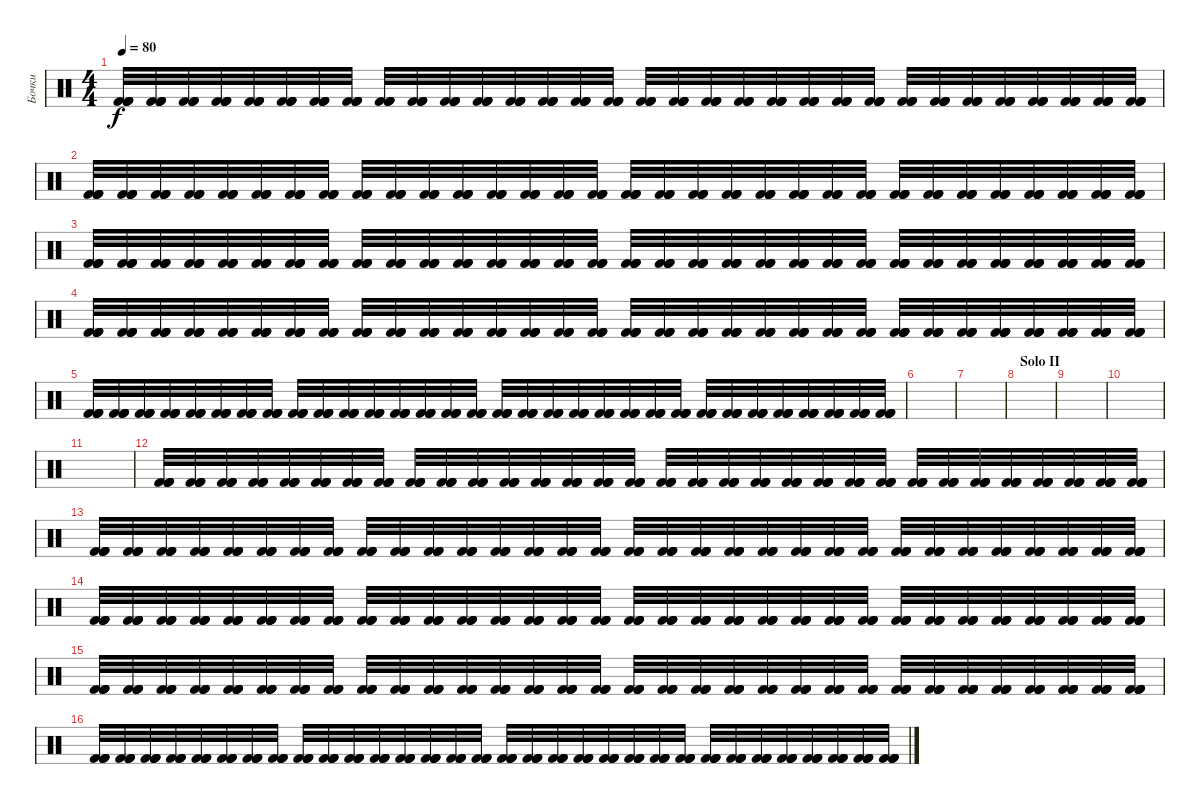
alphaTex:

\track ("Бочки" "Бочки") {instrument percussion}
\staff {score}
\articulation defaults
\ts (4 4)
\tempo 80
\clef neutral
\ks c
("Kick (hit) 2" "Kick (hit) 2" "Kick (hit) 2" "Kick (hit) 2").32{dy f} ("Kick (hit) 2" "Kick (hit) 2" "Kick (hit) 2" "Kick (hit) 2").32 ("Kick (hit) 2" "Kick (hit) 2" "Kick (hit) 2" "Kick (hit) 2").32 ("Kick (hit) 2" "Kick (hit) 2" "Kick (hit) 2" "Kick (hit) 2").32 ("Kick (hit) 2" "Kick (hit) 2" "Kick (hit) 2" "Kick (hit) 2").32 ("Kick (hit) 2" "Kick (hit) 2" "Kick (hit) 2" "Kick (hit) 2").32 ("Kick (hit) 2" "Kick (hit) 2" "Kick (hit) 2" "Kick (hit) 2").32 ("Kick (hit) 2" "Kick (hit) 2" "Kick (hit) 2" "Kick (hit) 2").32 ("Kick (hit) 2" "Kick (hit) 2" "Kick (hit) 2" "Kick (hit) 2").32 ("Kick (hit) 2" "Kick (hit) 2" "Kick (hit) 2" "Kick (hit) 2").32 ("Kick (hit) 2" "Kick (hit) 2" "Kick (hit) 2" "Kick (hit) 2").32 ("Kick (hit) 2" "Kick (hit) 2" "Kick (hit) 2" "Kick (hit) 2").32 ("Kick (hit) 2" "Kick (hit) 2" "Kick (hit) 2" "Kick (hit) 2").32 ("Kick (hit) 2" "Kick (hit) 2" "Kick (hit) 2" "Kick (hit) 2").32 ("Kick (hit) 2" "Kick (hit) 2" "Kick (hit) 2" "Kick (hit) 2").32 ("Kick (hit) 2" "Kick (hit) 2" "Kick (hit) 2" "Kick (hit) 2").32 ("Kick (hit) 2" "Kick (hit) 2" "Kick (hit) 2" "Kick (hit) 2").32 ("Kick (hit) 2" "Kick (hit) 2" "Kick (hit) 2" "Kick (hit) 2").32 ("Kick (hit) 2" "Kick (hit) 2" "Kick (hit) 2" "Kick (hit) 2").32 ("Kick (hit) 2" "Kick (hit) 2" "Kick (hit) 2" "Kick (hit) 2").32 ("Kick (hit) 2" "Kick (hit) 2" "Kick (hit) 2" "Kick (hit) 2").32 ("Kick (hit) 2" "Kick (hit) 2" "Kick (hit) 2" "Kick (hit) 2").32 ("Kick (hit) 2" "Kick (hit) 2" "Kick (hit) 2" "Kick (hit) 2").32 ("Kick (hit) 2" "Kick (hit) 2" "Kick (hit) 2" "Kick (hit) 2").32 ("Kick (hit) 2" "Kick (hit) 2" "Kick (hit) 2" "Kick (hit) 2").32 ("Kick (hit) 2" "Kick (hit) 2" "Kick (hit) 2" "Kick (hit) 2").32 ("Kick (hit) 2" "Kick (hit) 2" "Kick (hit) 2" "Kick (hit) 2").32 ("Kick (hit) 2" "Kick (hit) 2" "Kick (hit) 2" "Kick (hit) 2").32 ("Kick (hit) 2" "Kick (hit) 2" "Kick (hit) 2" "Kick (hit) 2").32 ("Kick (hit) 2" "Kick (hit) 2" "Kick (hit) 2" "Kick (hit) 2").32 ("Kick (hit) 2" "Kick (hit) 2" "Kick (hit) 2" "Kick (hit) 2").32 ("Kick (hit) 2" "Kick (hit) 2" "Kick (hit) 2" "Kick (hit) 2").32 |
("Kick (hit) 2" "Kick (hit) 2" "Kick (hit) 2" "Kick (hit) 2").32 ("Kick (hit) 2" "Kick (hit) 2" "Kick (hit) 2" "Kick (hit) 2").32 ("Kick (hit) 2" "Kick (hit) 2" "Kick (hit) 2" "Kick (hit) 2").32 ("Kick (hit) 2" "Kick (hit) 2" "Kick (hit) 2" "Kick (hit) 2").32 ("Kick (hit) 2" "Kick (hit) 2" "Kick (hit) 2" "Kick (hit) 2").32 ("Kick (hit) 2" "Kick (hit) 2" "Kick (hit) 2" "Kick (hit) 2").32 ("Kick (hit) 2" "Kick (hit) 2" "Kick (hit) 2" "Kick (hit) 2").32 ("Kick (hit) 2" "Kick (hit) 2" "Kick (hit) 2" "Kick (hit) 2").32 ("Kick (hit) 2" "Kick (hit) 2" "Kick (hit) 2" "Kick (hit) 2").32 ("Kick (hit) 2" "Kick (hit) 2" "Kick (hit) 2" "Kick (hit) 2").32 ("Kick (hit) 2" "Kick (hit) 2" "Kick (hit) 2" "Kick (hit) 2").32 ("Kick (hit) 2" "Kick (hit) 2" "Kick (hit) 2" "Kick (hit) 2").32 ("Kick (hit) 2" "Kick (hit) 2" "Kick (hit) 2" "Kick (hit) 2").32 ("Kick (hit) 2" "Kick (hit) 2" "Kick (hit) 2" "Kick (hit) 2").32 ("Kick (hit) 2" "Kick (hit) 2" "Kick (hit) 2" "Kick (hit) 2").32 ("Kick (hit) 2" "Kick (hit) 2" "Kick (hit) 2" "Kick (hit) 2").32 ("Kick (hit) 2" "Kick (hit) 2" "Kick (hit) 2" "Kick (hit) 2").32 ("Kick (hit) 2" "Kick (hit) 2" "Kick (hit) 2" "Kick (hit) 2").32 ("Kick (hit) 2" "Kick (hit) 2" "Kick (hit) 2" "Kick (hit) 2").32 ("Kick (hit) 2" "Kick (hit) 2" "Kick (hit) 2" "Kick (hit) 2").32 ("Kick (hit) 2" "Kick (hit) 2" "Kick (hit) 2" "Kick (hit) 2").32 ("Kick (hit) 2" "Kick (hit) 2" "Kick (hit) 2" "Kick (hit) 2").32 ("Kick (hit) 2" "Kick (hit) 2" "Kick (hit) 2" "Kick (hit) 2").32 ("Kick (hit) 2" "Kick (hit) 2" "Kick (hit) 2" "Kick (hit) 2").32 ("Kick (hit) 2" "Kick (hit) 2" "Kick (hit) 2" "Kick (hit) 2").32 ("Kick (hit) 2" "Kick (hit) 2" "Kick (hit) 2" "Kick (hit) 2").32 ("Kick (hit) 2" "Kick (hit) 2" "Kick (hit) 2" "Kick (hit) 2").32 ("Kick (hit) 2" "Kick (hit) 2" "Kick (hit) 2" "Kick (hit) 2").32 ("Kick (hit) 2" "Kick (hit) 2" "Kick (hit) 2" "Kick (hit) 2").32 ("Kick (hit) 2" "Kick (hit) 2" "Kick (hit) 2" "Kick (hit) 2").32 ("Kick (hit) 2" "Kick (hit) 2" "Kick (hit) 2" "Kick (hit) 2").32 ("Kick (hit) 2" "Kick (hit) 2" "Kick (hit) 2" "Kick (hit) 2").32 |
("Kick (hit) 2" "Kick (hit) 2" "Kick (hit) 2" "Kick (hit) 2").32 ("Kick (hit) 2" "Kick (hit) 2" "Kick (hit) 2" "Kick (hit) 2").32 ("Kick (hit) 2" "Kick (hit) 2" "Kick (hit) 2" "Kick (hit) 2").32 ("Kick (hit) 2" "Kick (hit) 2" "Kick (hit) 2" "Kick (hit) 2").32 ("Kick (hit) 2" "Kick (hit) 2" "Kick (hit) 2" "Kick (hit) 2").32 ("Kick (hit) 2" "Kick (hit) 2" "Kick (hit) 2" "Kick (hit) 2").32 ("Kick (hit) 2" "Kick (hit) 2" "Kick (hit) 2" "Kick (hit) 2").32 ("Kick (hit) 2" "Kick (hit) 2" "Kick (hit) 2" "Kick (hit) 2").32 ("Kick (hit) 2" "Kick (hit) 2" "Kick (hit) 2" "Kick (hit) 2").32 ("Kick (hit) 2" "Kick (hit) 2" "Kick (hit) 2" "Kick (hit) 2").32 ("Kick (hit) 2" "Kick (hit) 2" "Kick (hit) 2" "Kick (hit) 2").32 ("Kick (hit) 2" "Kick (hit) 2" "Kick (hit) 2" "Kick (hit) 2").32 ("Kick (hit) 2" "Kick (hit) 2" "Kick (hit) 2" "Kick (hit) 2").32 ("Kick (hit) 2" "Kick (hit) 2" "Kick (hit) 2" "Kick (hit) 2").32 ("Kick (hit) 2" "Kick (hit) 2" "Kick (hit) 2" "Kick (hit) 2").32 ("Kick (hit) 2" "Kick (hit) 2" "Kick (hit) 2" "Kick (hit) 2").32 ("Kick (hit) 2" "Kick (hit) 2" "Kick (hit) 2" "Kick (hit) 2").32 ("Kick (hit) 2" "Kick (hit) 2" "Kick (hit) 2" "Kick (hit) 2").32 ("Kick (hit) 2" "Kick (hit) 2" "Kick (hit) 2" "Kick (hit) 2").32 ("Kick (hit) 2" "Kick (hit) 2" "Kick (hit) 2" "Kick (hit) 2").32 ("Kick (hit) 2" "Kick (hit) 2" "Kick (hit) 2" "Kick (hit) 2").32 ("Kick (hit) 2" "Kick (hit) 2" "Kick (hit) 2" "Kick (hit) 2").32 ("Kick (hit) 2" "Kick (hit) 2" "Kick (hit) 2" "Kick (hit) 2").32 ("Kick (hit) 2" "Kick (hit) 2" "Kick (hit) 2" "Kick (hit) 2").32 ("Kick (hit) 2" "Kick (hit) 2" "Kick (hit) 2" "Kick (hit) 2").32 ("Kick (hit) 2" "Kick (hit) 2" "Kick (hit) 2" "Kick (hit) 2").32 ("Kick (hit) 2" "Kick (hit) 2" "Kick (hit) 2" "Kick (hit) 2").32 ("Kick (hit) 2" "Kick (hit) 2" "Kick (hit) 2" "Kick (hit) 2").32 ("Kick (hit) 2" "Kick (hit) 2" "Kick (hit) 2" "Kick (hit) 2").32 ("Kick (hit) 2" "Kick (hit) 2" "Kick (hit) 2" "Kick (hit) 2").32 ("Kick (hit) 2" "Kick (hit) 2" "Kick (hit) 2" "Kick (hit) 2").32 ("Kick (hit) 2" "Kick (hit) 2" "Kick (hit) 2" "Kick (hit) 2").32 |
("Kick (hit) 2" "Kick (hit) 2" "Kick (hit) 2" "Kick (hit) 2").32 ("Kick (hit) 2" "Kick (hit) 2" "Kick (hit) 2" "Kick (hit) 2").32 ("Kick (hit) 2" "Kick (hit) 2" "Kick (hit) 2" "Kick (hit) 2").32 ("Kick (hit) 2" "Kick (hit) 2" "Kick (hit) 2" "Kick (hit) 2").32 ("Kick (hit) 2" "Kick (hit) 2" "Kick (hit) 2" "Kick (hit) 2").32 ("Kick (hit) 2" "Kick (hit) 2" "Kick (hit) 2" "Kick (hit) 2").32 ("Kick (hit) 2" "Kick (hit) 2" "Kick (hit) 2" "Kick (hit) 2").32 ("Kick (hit) 2" "Kick (hit) 2" "Kick (hit) 2" "Kick (hit) 2").32 ("Kick (hit) 2" "Kick (hit) 2" "Kick (hit) 2" "Kick (hit) 2").32 ("Kick (hit) 2" "Kick (hit) 2" "Kick (hit) 2" "Kick (hit) 2").32 ("Kick (hit) 2" "Kick (hit) 2" "Kick (hit) 2" "Kick (hit) 2").32 ("Kick (hit) 2" "Kick (hit) 2" "Kick (hit) 2" "Kick (hit) 2").32 ("Kick (hit) 2" "Kick (hit) 2" "Kick (hit) 2" "Kick (hit) 2").32 ("Kick (hit) 2" "Kick (hit) 2" "Kick (hit) 2" "Kick (hit) 2").32 ("Kick (hit) 2" "Kick (hit) 2" "Kick (hit) 2" "Kick (hit) 2").32 ("Kick (hit) 2" "Kick (hit) 2" "Kick (hit) 2" "Kick (hit) 2").32 ("Kick (hit) 2" "Kick (hit) 2" "Kick (hit) 2" "Kick (hit) 2").32 ("Kick (hit) 2" "Kick (hit) 2" "Kick (hit) 2" "Kick (hit) 2").32 ("Kick (hit) 2" "Kick (hit) 2" "Kick (hit) 2" "Kick (hit) 2").32 ("Kick (hit) 2" "Kick (hit) 2" "Kick (hit) 2" "Kick (hit) 2").32 ("Kick (hit) 2" "Kick (hit) 2" "Kick (hit) 2" "Kick (hit) 2").32 ("Kick (hit) 2" "Kick (hit) 2" "Kick (hit) 2" "Kick (hit) 2").32 ("Kick (hit) 2" "Kick (hit) 2" "Kick (hit) 2" "Kick (hit) 2").32 ("Kick (hit) 2" "Kick (hit) 2" "Kick (hit) 2" "Kick (hit) 2").32 ("Kick (hit) 2" "Kick (hit) 2" "Kick (hit) 2" "Kick (hit) 2").32 ("Kick (hit) 2" "Kick (hit) 2" "Kick (hit) 2" "Kick (hit) 2").32 ("Kick (hit) 2" "Kick (hit) 2" "Kick (hit) 2" "Kick (hit) 2").32 ("Kick (hit) 2" "Kick (hit) 2" "Kick (hit) 2" "Kick (hit) 2").32 ("Kick (hit) 2" "Kick (hit) 2" "Kick (hit) 2" "Kick (hit) 2").32 ("Kick (hit) 2" "Kick (hit) 2" "Kick (hit) 2" "Kick (hit) 2").32 ("Kick (hit) 2" "Kick (hit) 2" "Kick (hit) 2" "Kick (hit) 2").32 ("Kick (hit) 2" "Kick (hit) 2" "Kick (hit) 2" "Kick (hit) 2").32 |
("Kick (hit) 2" "Kick (hit) 2" "Kick (hit) 2" "Kick (hit) 2").32 ("Kick (hit) 2" "Kick (hit) 2" "Kick (hit) 2" "Kick (hit) 2").32 ("Kick (hit) 2" "Kick (hit) 2" "Kick (hit) 2" "Kick (hit) 2").32 ("Kick (hit) 2" "Kick (hit) 2" "Kick (hit) 2" "Kick (hit) 2").32 ("Kick (hit) 2" "Kick (hit) 2" "Kick (hit) 2" "Kick (hit) 2").32 ("Kick (hit) 2" "Kick (hit) 2" "Kick (hit) 2" "Kick (hit) 2").32 ("Kick (hit) 2" "Kick (hit) 2" "Kick (hit) 2" "Kick (hit) 2").32 ("Kick (hit) 2" "Kick (hit) 2" "Kick (hit) 2" "Kick (hit) 2").32 ("Kick (hit) 2" "Kick (hit) 2" "Kick (hit) 2" "Kick (hit) 2").32 ("Kick (hit) 2" "Kick (hit) 2" "Kick (hit) 2" "Kick (hit) 2").32 ("Kick (hit) 2" "Kick (hit) 2" "Kick (hit) 2" "Kick (hit) 2").32 ("Kick (hit) 2" "Kick (hit) 2" "Kick (hit) 2" "Kick (hit) 2").32 ("Kick (hit) 2" "Kick (hit) 2" "Kick (hit) 2" "Kick (hit) 2").32 ("Kick (hit) 2" "Kick (hit) 2" "Kick (hit) 2" "Kick (hit) 2").32 ("Kick (hit) 2" "Kick (hit) 2" "Kick (hit) 2" "Kick (hit) 2").32 ("Kick (hit) 2" "Kick (hit) 2" "Kick (hit) 2" "Kick (hit) 2").32 ("Kick (hit) 2" "Kick (hit) 2" "Kick (hit) 2" "Kick (hit) 2").32 ("Kick (hit) 2" "Kick (hit) 2" "Kick (hit) 2" "Kick (hit) 2").32 ("Kick (hit) 2" "Kick (hit) 2" "Kick (hit) 2" "Kick (hit) 2").32 ("Kick (hit) 2" "Kick (hit) 2" "Kick (hit) 2" "Kick (hit) 2").32 ("Kick (hit) 2" "Kick (hit) 2" "Kick (hit) 2" "Kick (hit) 2").32 ("Kick (hit) 2" "Kick (hit) 2" "Kick (hit) 2" "Kick (hit) 2").32 ("Kick (hit) 2" "Kick (hit) 2" "Kick (hit) 2" "Kick (hit) 2").32 ("Kick (hit) 2" "Kick (hit) 2" "Kick (hit) 2" "Kick (hit) 2").32 ("Kick (hit) 2" "Kick (hit) 2" "Kick (hit) 2" "Kick (hit) 2").32 ("Kick (hit) 2" "Kick (hit) 2" "Kick (hit) 2" "Kick (hit) 2").32 ("Kick (hit) 2" "Kick (hit) 2" "Kick (hit) 2" "Kick (hit) 2").32 ("Kick (hit) 2" "Kick (hit) 2" "Kick (hit) 2" "Kick (hit) 2").32 ("Kick (hit) 2" "Kick (hit) 2" "Kick (hit) 2" "Kick (hit) 2").32 ("Kick (hit) 2" "Kick (hit) 2" "Kick (hit) 2" "Kick (hit) 2").32 ("Kick (hit) 2" "Kick (hit) 2" "Kick (hit) 2" "Kick (hit) 2").32 ("Kick (hit) 2" "Kick (hit) 2" "Kick (hit) 2" "Kick (hit) 2").32 |
|
|
\section ("" "Solo II")
|
|
|
|
("Kick (hit) 2" "Kick (hit) 2" "Kick (hit) 2" "Kick (hit) 2").32 ("Kick (hit) 2" "Kick (hit) 2" "Kick (hit) 2" "Kick (hit) 2").32 ("Kick (hit) 2" "Kick (hit) 2" "Kick (hit) 2" "Kick (hit) 2").32 ("Kick (hit) 2" "Kick (hit) 2" "Kick (hit) 2" "Kick (hit) 2").32 ("Kick (hit) 2" "Kick (hit) 2" "Kick (hit) 2" "Kick (hit) 2").32 ("Kick (hit) 2" "Kick (hit) 2" "Kick (hit) 2" "Kick (hit) 2").32 ("Kick (hit) 2" "Kick (hit) 2" "Kick (hit) 2" "Kick (hit) 2").32 ("Kick (hit) 2" "Kick (hit) 2" "Kick (hit) 2" "Kick (hit) 2").32 ("Kick (hit) 2" "Kick (hit) 2" "Kick (hit) 2" "Kick (hit) 2").32 ("Kick (hit) 2" "Kick (hit) 2" "Kick (hit) 2" "Kick (hit) 2").32 ("Kick (hit) 2" "Kick (hit) 2" "Kick (hit) 2" "Kick (hit) 2").32 ("Kick (hit) 2" "Kick (hit) 2" "Kick (hit) 2" "Kick (hit) 2").32 ("Kick (hit) 2" "Kick (hit) 2" "Kick (hit) 2" "Kick (hit) 2").32 ("Kick (hit) 2" "Kick (hit) 2" "Kick (hit) 2" "Kick (hit) 2").32 ("Kick (hit) 2" "Kick (hit) 2" "Kick (hit) 2" "Kick (hit) 2").32 ("Kick (hit) 2" "Kick (hit) 2" "Kick (hit) 2" "Kick (hit) 2").32 ("Kick (hit) 2" "Kick (hit) 2" "Kick (hit) 2" "Kick (hit) 2").32 ("Kick (hit) 2" "Kick (hit) 2" "Kick (hit) 2" "Kick (hit) 2").32 ("Kick (hit) 2" "Kick (hit) 2" "Kick (hit) 2" "Kick (hit) 2").32 ("Kick (hit) 2" "Kick (hit) 2" "Kick (hit) 2" "Kick (hit) 2").32 ("Kick (hit) 2" "Kick (hit) 2" "Kick (hit) 2" "Kick (hit) 2").32 ("Kick (hit) 2" "Kick (hit) 2" "Kick (hit) 2" "Kick (hit) 2").32 ("Kick (hit) 2" "Kick (hit) 2" "Kick (hit) 2" "Kick (hit) 2").32 ("Kick (hit) 2" "Kick (hit) 2" "Kick (hit) 2" "Kick (hit) 2").32 ("Kick (hit) 2" "Kick (hit) 2" "Kick (hit) 2" "Kick (hit) 2").32 ("Kick (hit) 2" "Kick (hit) 2" "Kick (hit) 2" "Kick (hit) 2").32 ("Kick (hit) 2" "Kick (hit) 2" "Kick (hit) 2" "Kick (hit) 2").32 ("Kick (hit) 2" "Kick (hit) 2" "Kick (hit) 2" "Kick (hit) 2").32 ("Kick (hit) 2" "Kick (hit) 2" "Kick (hit) 2" "Kick (hit) 2").32 ("Kick (hit) 2" "Kick (hit) 2" "Kick (hit) 2" "Kick (hit) 2").32 ("Kick (hit) 2" "Kick (hit) 2" "Kick (hit) 2" "Kick (hit) 2").32 ("Kick (hit) 2" "Kick (hit) 2" "Kick (hit) 2" "Kick (hit) 2").32 |
("Kick (hit) 2" "Kick (hit) 2" "Kick (hit) 2" "Kick (hit) 2").32 ("Kick (hit) 2" "Kick (hit) 2" "Kick (hit) 2" "Kick (hit) 2").32 ("Kick (hit) 2" "Kick (hit) 2" "Kick (hit) 2" "Kick (hit) 2").32 ("Kick (hit) 2" "Kick (hit) 2" "Kick (hit) 2" "Kick (hit) 2").32 ("Kick (hit) 2" "Kick (hit) 2" "Kick (hit) 2" "Kick (hit) 2").32 ("Kick (hit) 2" "Kick (hit) 2" "Kick (hit) 2" "Kick (hit) 2").32 ("Kick (hit) 2" "Kick (hit) 2" "Kick (hit) 2" "Kick (hit) 2").32 ("Kick (hit) 2" "Kick (hit) 2" "Kick (hit) 2" "Kick (hit) 2").32 ("Kick (hit) 2" "Kick (hit) 2" "Kick (hit) 2" "Kick (hit) 2").32 ("Kick (hit) 2" "Kick (hit) 2" "Kick (hit) 2" "Kick (hit) 2").32 ("Kick (hit) 2" "Kick (hit) 2" "Kick (hit) 2" "Kick (hit) 2").32 ("Kick (hit) 2" "Kick (hit) 2" "Kick (hit) 2" "Kick (hit) 2").32 ("Kick (hit) 2" "Kick (hit) 2" "Kick (hit) 2" "Kick (hit) 2").32 ("Kick (hit) 2" "Kick (hit) 2" "Kick (hit) 2" "Kick (hit) 2").32 ("Kick (hit) 2" "Kick (hit) 2" "Kick (hit) 2" "Kick (hit) 2").32 ("Kick (hit) 2" "Kick (hit) 2" "Kick (hit) 2" "Kick (hit) 2").32 ("Kick (hit) 2" "Kick (hit) 2" "Kick (hit) 2" "Kick (hit) 2").32 ("Kick (hit) 2" "Kick (hit) 2" "Kick (hit) 2" "Kick (hit) 2").32 ("Kick (hit) 2" "Kick (hit) 2" "Kick (hit) 2" "Kick (hit) 2").32 ("Kick (hit) 2" "Kick (hit) 2" "Kick (hit) 2" "Kick (hit) 2").32 ("Kick (hit) 2" "Kick (hit) 2" "Kick (hit) 2" "Kick (hit) 2").32 ("Kick (hit) 2" "Kick (hit) 2" "Kick (hit) 2" "Kick (hit) 2").32 ("Kick (hit) 2" "Kick (hit) 2" "Kick (hit) 2" "Kick (hit) 2").32 ("Kick (hit) 2" "Kick (hit) 2" "Kick (hit) 2" "Kick (hit) 2").32 ("Kick (hit) 2" "Kick (hit) 2" "Kick (hit) 2" "Kick (hit) 2").32 ("Kick (hit) 2" "Kick (hit) 2" "Kick (hit) 2" "Kick (hit) 2").32 ("Kick (hit) 2" "Kick (hit) 2" "Kick (hit) 2" "Kick (hit) 2").32 ("Kick (hit) 2" "Kick (hit) 2" "Kick (hit) 2" "Kick (hit) 2").32 ("Kick (hit) 2" "Kick (hit) 2" "Kick (hit) 2" "Kick (hit) 2").32 ("Kick (hit) 2" "Kick (hit) 2" "Kick (hit) 2" "Kick (hit) 2").32 ("Kick (hit) 2" "Kick (hit) 2" "Kick (hit) 2" "Kick (hit) 2").32 ("Kick (hit) 2" "Kick (hit) 2" "Kick (hit) 2" "Kick (hit) 2").32 |
("Kick (hit) 2" "Kick (hit) 2" "Kick (hit) 2" "Kick (hit) 2").32 ("Kick (hit) 2" "Kick (hit) 2" "Kick (hit) 2" "Kick (hit) 2").32 ("Kick (hit) 2" "Kick (hit) 2" "Kick (hit) 2" "Kick (hit) 2").32 ("Kick (hit) 2" "Kick (hit) 2" "Kick (hit) 2" "Kick (hit) 2").32 ("Kick (hit) 2" "Kick (hit) 2" "Kick (hit) 2" "Kick (hit) 2").32 ("Kick (hit) 2" "Kick (hit) 2" "Kick (hit) 2" "Kick (hit) 2").32 ("Kick (hit) 2" "Kick (hit) 2" "Kick (hit) 2" "Kick (hit) 2").32 ("Kick (hit) 2" "Kick (hit) 2" "Kick (hit) 2" "Kick (hit) 2").32 ("Kick (hit) 2" "Kick (hit) 2" "Kick (hit) 2" "Kick (hit) 2").32 ("Kick (hit) 2" "Kick (hit) 2" "Kick (hit) 2" "Kick (hit) 2").32 ("Kick (hit) 2" "Kick (hit) 2" "Kick (hit) 2" "Kick (hit) 2").32 ("Kick (hit) 2" "Kick (hit) 2" "Kick (hit) 2" "Kick (hit) 2").32 ("Kick (hit) 2" "Kick (hit) 2" "Kick (hit) 2" "Kick (hit) 2").32 ("Kick (hit) 2" "Kick (hit) 2" "Kick (hit) 2" "Kick (hit) 2").32 ("Kick (hit) 2" "Kick (hit) 2" "Kick (hit) 2" "Kick (hit) 2").32 ("Kick (hit) 2" "Kick (hit) 2" "Kick (hit) 2" "Kick (hit) 2").32 ("Kick (hit) 2" "Kick (hit) 2" "Kick (hit) 2" "Kick (hit) 2").32 ("Kick (hit) 2" "Kick (hit) 2" "Kick (hit) 2" "Kick (hit) 2").32 ("Kick (hit) 2" "Kick (hit) 2" "Kick (hit) 2" "Kick (hit) 2").32 ("Kick (hit) 2" "Kick (hit) 2" "Kick (hit) 2" "Kick (hit) 2").32 ("Kick (hit) 2" "Kick (hit) 2" "Kick (hit) 2" "Kick (hit) 2").32 ("Kick (hit) 2" "Kick (hit) 2" "Kick (hit) 2" "Kick (hit) 2").32 ("Kick (hit) 2" "Kick (hit) 2" "Kick (hit) 2" "Kick (hit) 2").32 ("Kick (hit) 2" "Kick (hit) 2" "Kick (hit) 2" "Kick (hit) 2").32 ("Kick (hit) 2" "Kick (hit) 2" "Kick (hit) 2" "Kick (hit) 2").32 ("Kick (hit) 2" "Kick (hit) 2" "Kick (hit) 2" "Kick (hit) 2").32 ("Kick (hit) 2" "Kick (hit) 2" "Kick (hit) 2" "Kick (hit) 2").32 ("Kick (hit) 2" "Kick (hit) 2" "Kick (hit) 2" "Kick (hit) 2").32 ("Kick (hit) 2" "Kick (hit) 2" "Kick (hit) 2" "Kick (hit) 2").32 ("Kick (hit) 2" "Kick (hit) 2" "Kick (hit) 2" "Kick (hit) 2").32 ("Kick (hit) 2" "Kick (hit) 2" "Kick (hit) 2" "Kick (hit) 2").32 ("Kick (hit) 2" "Kick (hit) 2" "Kick (hit) 2" "Kick (hit) 2").32 |
("Kick (hit) 2" "Kick (hit) 2" "Kick (hit) 2" "Kick (hit) 2").32 ("Kick (hit) 2" "Kick (hit) 2" "Kick (hit) 2" "Kick (hit) 2").32 ("Kick (hit) 2" "Kick (hit) 2" "Kick (hit) 2" "Kick (hit) 2").32 ("Kick (hit) 2" "Kick (hit) 2" "Kick (hit) 2" "Kick (hit) 2").32 ("Kick (hit) 2" "Kick (hit) 2" "Kick (hit) 2" "Kick (hit) 2").32 ("Kick (hit) 2" "Kick (hit) 2" "Kick (hit) 2" "Kick (hit) 2").32 ("Kick (hit) 2" "Kick (hit) 2" "Kick (hit) 2" "Kick (hit) 2").32 ("Kick (hit) 2" "Kick (hit) 2" "Kick (hit) 2" "Kick (hit) 2").32 ("Kick (hit) 2" "Kick (hit) 2" "Kick (hit) 2" "Kick (hit) 2").32 ("Kick (hit) 2" "Kick (hit) 2" "Kick (hit) 2" "Kick (hit) 2").32 ("Kick (hit) 2" "Kick (hit) 2" "Kick (hit) 2" "Kick (hit) 2").32 ("Kick (hit) 2" "Kick (hit) 2" "Kick (hit) 2" "Kick (hit) 2").32 ("Kick (hit) 2" "Kick (hit) 2" "Kick (hit) 2" "Kick (hit) 2").32 ("Kick (hit) 2" "Kick (hit) 2" "Kick (hit) 2" "Kick (hit) 2").32 ("Kick (hit) 2" "Kick (hit) 2" "Kick (hit) 2" "Kick (hit) 2").32 ("Kick (hit) 2" "Kick (hit) 2" "Kick (hit) 2" "Kick (hit) 2").32 ("Kick (hit) 2" "Kick (hit) 2" "Kick (hit) 2" "Kick (hit) 2").32 ("Kick (hit) 2" "Kick (hit) 2" "Kick (hit) 2" "Kick (hit) 2").32 ("Kick (hit) 2" "Kick (hit) 2" "Kick (hit) 2" "Kick (hit) 2").32 ("Kick (hit) 2" "Kick (hit) 2" "Kick (hit) 2" "Kick (hit) 2").32 ("Kick (hit) 2" "Kick (hit) 2" "Kick (hit) 2" "Kick (hit) 2").32 ("Kick (hit) 2" "Kick (hit) 2" "Kick (hit) 2" "Kick (hit) 2").32 ("Kick (hit) 2" "Kick (hit) 2" "Kick (hit) 2" "Kick (hit) 2").32 ("Kick (hit) 2" "Kick (hit) 2" "Kick (hit) 2" "Kick (hit) 2").32 ("Kick (hit) 2" "Kick (hit) 2" "Kick (hit) 2" "Kick (hit) 2").32 ("Kick (hit) 2" "Kick (hit) 2" "Kick (hit) 2" "Kick (hit) 2").32 ("Kick (hit) 2" "Kick (hit) 2" "Kick (hit) 2" "Kick (hit) 2").32 ("Kick (hit) 2" "Kick (hit) 2" "Kick (hit) 2" "Kick (hit) 2").32 ("Kick (hit) 2" "Kick (hit) 2" "Kick (hit) 2" "Kick (hit) 2").32 ("Kick (hit) 2" "Kick (hit) 2" "Kick (hit) 2" "Kick (hit) 2").32 ("Kick (hit) 2" "Kick (hit) 2" "Kick (hit) 2" "Kick (hit) 2").32 ("Kick (hit) 2" "Kick (hit) 2" "Kick (hit) 2" "Kick (hit) 2").32 |
("Kick (hit) 2" "Kick (hit) 2" "Kick (hit) 2" "Kick (hit) 2").32 ("Kick (hit) 2" "Kick (hit) 2" "Kick (hit) 2" "Kick (hit) 2").32 ("Kick (hit) 2" "Kick (hit) 2" "Kick (hit) 2" "Kick (hit) 2").32 ("Kick (hit) 2" "Kick (hit) 2" "Kick (hit) 2" "Kick (hit) 2").32 ("Kick (hit) 2" "Kick (hit) 2" "Kick (hit) 2" "Kick (hit) 2").32 ("Kick (hit) 2" "Kick (hit) 2" "Kick (hit) 2" "Kick (hit) 2").32 ("Kick (hit) 2" "Kick (hit) 2" "Kick (hit) 2" "Kick (hit) 2").32 ("Kick (hit) 2" "Kick (hit) 2" "Kick (hit) 2" "Kick (hit) 2").32 ("Kick (hit) 2" "Kick (hit) 2" "Kick (hit) 2" "Kick (hit) 2").32 ("Kick (hit) 2" "Kick (hit) 2" "Kick (hit) 2" "Kick (hit) 2").32 ("Kick (hit) 2" "Kick (hit) 2" "Kick (hit) 2" "Kick (hit) 2").32 ("Kick (hit) 2" "Kick (hit) 2" "Kick (hit) 2" "Kick (hit) 2").32 ("Kick (hit) 2" "Kick (hit) 2" "Kick (hit) 2" "Kick (hit) 2").32 ("Kick (hit) 2" "Kick (hit) 2" "Kick (hit) 2" "Kick (hit) 2").32 ("Kick (hit) 2" "Kick (hit) 2" "Kick (hit) 2" "Kick (hit) 2").32 ("Kick (hit) 2" "Kick (hit) 2" "Kick (hit) 2" "Kick (hit) 2").32 ("Kick (hit) 2" "Kick (hit) 2" "Kick (hit) 2" "Kick (hit) 2").32 ("Kick (hit) 2" "Kick (hit) 2" "Kick (hit) 2" "Kick (hit) 2").32 ("Kick (hit) 2" "Kick (hit) 2" "Kick (hit) 2" "Kick (hit) 2").32 ("Kick (hit) 2" "Kick (hit) 2" "Kick (hit) 2" "Kick (hit) 2").32 ("Kick (hit) 2" "Kick (hit) 2" "Kick (hit) 2" "Kick (hit) 2").32 ("Kick (hit) 2" "Kick (hit) 2" "Kick (hit) 2" "Kick (hit) 2").32 ("Kick (hit) 2" "Kick (hit) 2" "Kick (hit) 2" "Kick (hit) 2").32 ("Kick (hit) 2" "Kick (hit) 2" "Kick (hit) 2" "Kick (hit) 2").32 ("Kick (hit) 2" "Kick (hit) 2" "Kick (hit) 2" "Kick (hit) 2").32 ("Kick (hit) 2" "Kick (hit) 2" "Kick (hit) 2" "Kick (hit) 2").32 ("Kick (hit) 2" "Kick (hit) 2" "Kick (hit) 2" "Kick (hit) 2").32 ("Kick (hit) 2" "Kick (hit) 2" "Kick (hit) 2" "Kick (hit) 2").32 ("Kick (hit) 2" "Kick (hit) 2" "Kick (hit) 2" "Kick (hit) 2").32 ("Kick (hit) 2" "Kick (hit) 2" "Kick (hit) 2" "Kick (hit) 2").32 ("Kick (hit) 2" "Kick (hit) 2" "Kick (hit) 2" "Kick (hit) 2").32 ("Kick (hit) 2" "Kick (hit) 2" "Kick (hit) 2" "Kick (hit) 2").32
